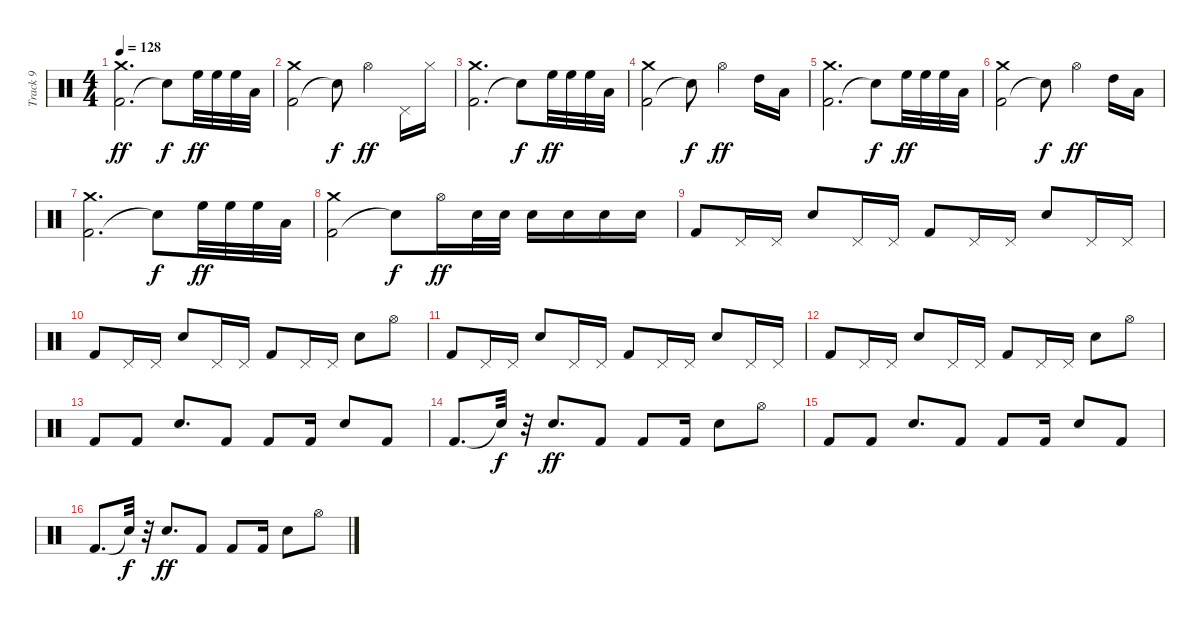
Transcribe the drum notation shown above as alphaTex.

\track ("Track 9" "Track 9") {instrument percussion}
\staff {score}
\articulation defaults
\ts (4 4)
\tempo 128
\clef neutral
\ks c
("Kick (hit) 2" "Crash medium (hit)").2{d dy ff} "Snare (hit)"{t}.8{dy f} "High Floor Tom (hit)".32{dy ff} "High Floor Tom (hit)".32 "High Floor Tom (hit)".32 "Low Tom (hit)".32 |
("Kick (hit) 2" "Crash medium (hit)").2 "Snare (hit)"{t}.8{dy f} "Hi-Hat (open)".4{dy ff} "Pedal Hi-Hat (hit)".16 "Hi-Hat (closed)".16 |
("Kick (hit) 2" "Crash medium (hit)").2{d} "Snare (hit)"{t}.8{dy f} "High Floor Tom (hit)".32{dy ff} "High Floor Tom (hit)".32 "High Floor Tom (hit)".32 "Low Tom (hit)".32 |
("Kick (hit) 2" "Crash medium (hit)").2 "Snare (hit)"{t}.8{dy f} "Hi-Hat (open)".4{dy ff} "High Tom (hit)".16 "Low Tom (hit)".16 |
("Kick (hit) 2" "Crash medium (hit)").2{d} "Snare (hit)"{t}.8{dy f} "High Floor Tom (hit)".32{dy ff} "High Floor Tom (hit)".32 "High Floor Tom (hit)".32 "Low Tom (hit)".32 |
("Kick (hit) 2" "Crash medium (hit)").2 "Snare (hit)"{t}.8{dy f} "Hi-Hat (open)".4{dy ff} "High Tom (hit)".16 "Low Tom (hit)".16 |
("Kick (hit) 2" "Crash medium (hit)").2{d} "Snare (hit)"{t}.8{dy f} "High Floor Tom (hit)".32{dy ff} "High Floor Tom (hit)".32 "High Floor Tom (hit)".32 "Low Tom (hit)".32 |
("Kick (hit) 2" "Crash medium (hit)").2 "Snare (hit)"{t}.8{dy f} "Hi-Hat (open)".16{dy ff} "Snare (hit) 2".32 "Snare (hit) 2".32 "Snare (hit) 2".16 "Snare (hit) 2".16 "Snare (hit) 2".16 "Snare (hit) 2".16 |
"Kick (hit) 2".8 "Pedal Hi-Hat (hit)".16 "Pedal Hi-Hat (hit)".16 "Snare (hit) 2".8 "Pedal Hi-Hat (hit)".16 "Pedal Hi-Hat (hit)".16 "Kick (hit) 2".8 "Pedal Hi-Hat (hit)".16 "Pedal Hi-Hat (hit)".16 "Snare (hit) 2".8 "Pedal Hi-Hat (hit)".16 "Pedal Hi-Hat (hit)".16 |
"Kick (hit) 2".8 "Pedal Hi-Hat (hit)".16 "Pedal Hi-Hat (hit)".16 "Snare (hit) 2".8 "Pedal Hi-Hat (hit)".16 "Pedal Hi-Hat (hit)".16 "Kick (hit) 2".8 "Pedal Hi-Hat (hit)".16 "Pedal Hi-Hat (hit)".16 "Snare (hit) 2".8 "Hi-Hat (open)".8 |
"Kick (hit) 2".8 "Pedal Hi-Hat (hit)".16 "Pedal Hi-Hat (hit)".16 "Snare (hit) 2".8 "Pedal Hi-Hat (hit)".16 "Pedal Hi-Hat (hit)".16 "Kick (hit) 2".8 "Pedal Hi-Hat (hit)".16 "Pedal Hi-Hat (hit)".16 "Snare (hit) 2".8 "Pedal Hi-Hat (hit)".16 "Pedal Hi-Hat (hit)".16 |
"Kick (hit) 2".8 "Pedal Hi-Hat (hit)".16 "Pedal Hi-Hat (hit)".16 "Snare (hit) 2".8 "Pedal Hi-Hat (hit)".16 "Pedal Hi-Hat (hit)".16 "Kick (hit) 2".8 "Pedal Hi-Hat (hit)".16 "Pedal Hi-Hat (hit)".16 "Snare (hit) 2".8 "Hi-Hat (open)".8 |
"Kick (hit) 2".8 "Kick (hit) 2".8 "Snare (hit) 2".8{d} "Kick (hit) 2".8 "Kick (hit) 2".8 "Kick (hit) 2".16 "Snare (hit) 2".8 "Kick (hit) 2".8 |
"Kick (hit) 2".8{d} "Snare (hit)"{t}.32{dy f} r.32 "Snare (hit) 2".8{d dy ff} "Kick (hit) 2".8 "Kick (hit) 2".8 "Kick (hit) 2".16 "Snare (hit) 2".8 "Hi-Hat (open)".8 |
"Kick (hit) 2".8 "Kick (hit) 2".8 "Snare (hit) 2".8{d} "Kick (hit) 2".8 "Kick (hit) 2".8 "Kick (hit) 2".16 "Snare (hit) 2".8 "Kick (hit) 2".8 |
"Kick (hit) 2".8{d} "Snare (hit)"{t}.32{dy f} r.32 "Snare (hit) 2".8{d dy ff} "Kick (hit) 2".8 "Kick (hit) 2".8 "Kick (hit) 2".16 "Snare (hit) 2".8 "Hi-Hat (open)".8
